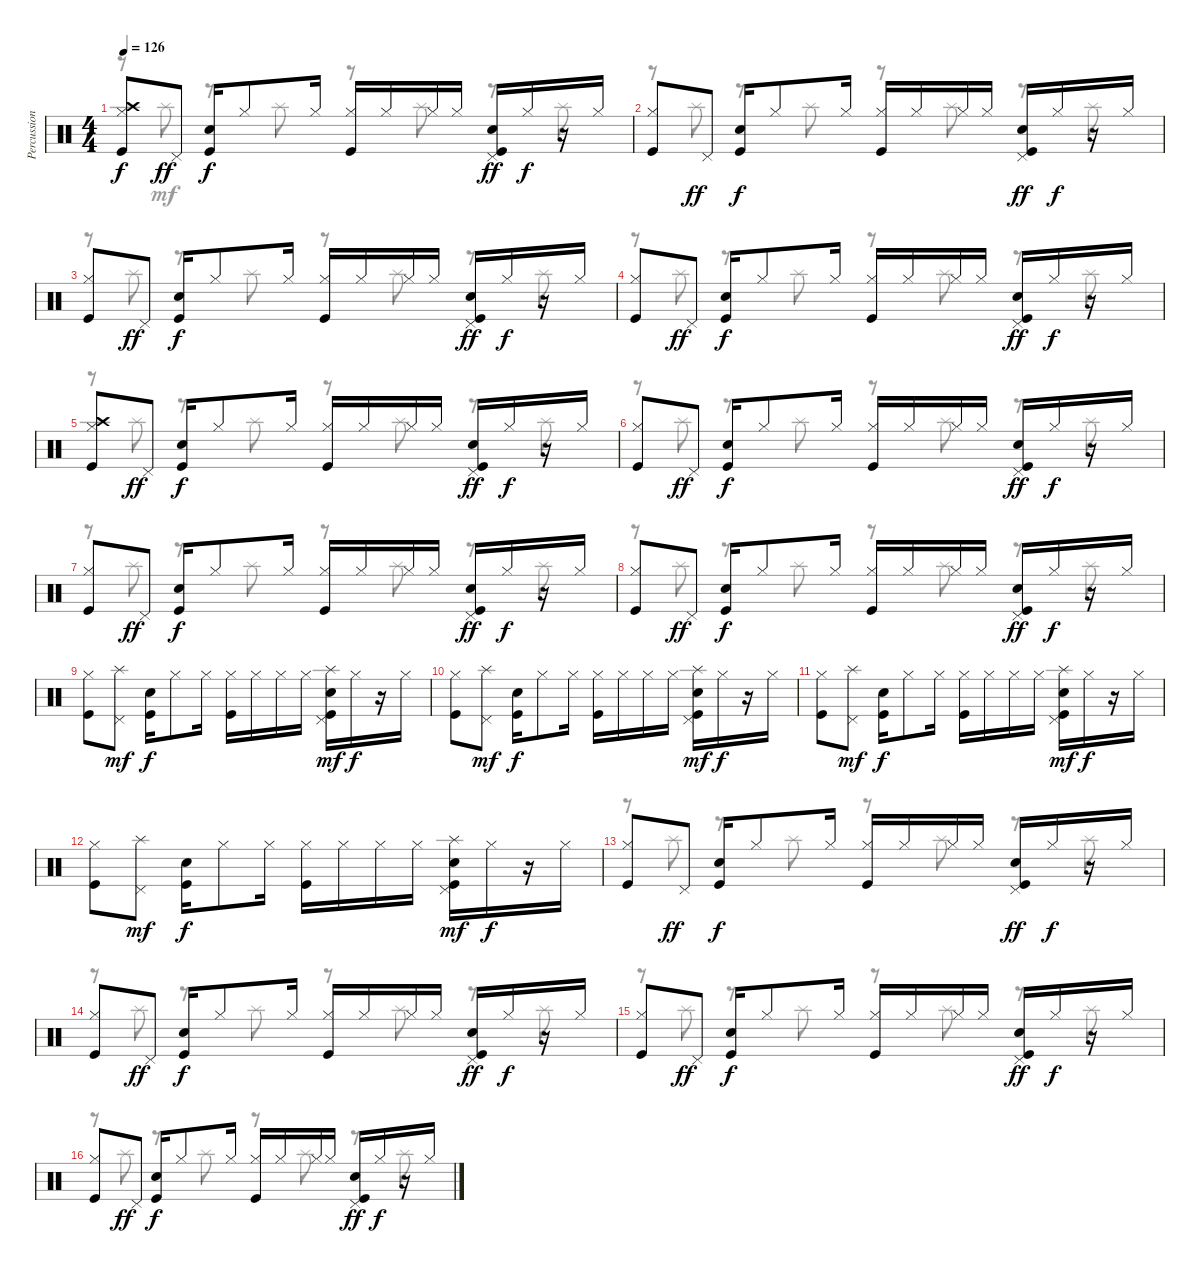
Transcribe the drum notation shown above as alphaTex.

\track ("Percussion" "Percussion") {instrument percussion}
\staff {score}
\articulation defaults
\voice
\ts (4 4)
\tempo 126
\clef neutral
\ks c
("Kick (hit)" "Hi-Hat (closed)" "Crash high (hit)").8{dy f} "Pedal Hi-Hat (hit)".8{dy ff} ("Kick (hit)" "Snare (hit) 2").16{dy f} "Hi-Hat (closed)".8 "Hi-Hat (closed)".16 ("Kick (hit)" "Hi-Hat (closed)").16 "Hi-Hat (closed)".16 "Hi-Hat (closed)".16 "Hi-Hat (closed)".16 ("Kick (hit)" "Snare (hit) 2" "Pedal Hi-Hat (hit)").16{dy ff} "Hi-Hat (closed)".16{dy f} r.16 "Hi-Hat (closed)".16 |
("Kick (hit)" "Hi-Hat (closed)").8 "Pedal Hi-Hat (hit)".8{dy ff} ("Kick (hit)" "Snare (hit) 2").16{dy f} "Hi-Hat (closed)".8 "Hi-Hat (closed)".16 ("Kick (hit)" "Hi-Hat (closed)").16 "Hi-Hat (closed)".16 "Hi-Hat (closed)".16 "Hi-Hat (closed)".16 ("Kick (hit)" "Snare (hit) 2" "Pedal Hi-Hat (hit)").16{dy ff} "Hi-Hat (closed)".16{dy f} r.16 "Hi-Hat (closed)".16 |
("Kick (hit)" "Hi-Hat (closed)").8 "Pedal Hi-Hat (hit)".8{dy ff} ("Kick (hit)" "Snare (hit) 2").16{dy f} "Hi-Hat (closed)".8 "Hi-Hat (closed)".16 ("Kick (hit)" "Hi-Hat (closed)").16 "Hi-Hat (closed)".16 "Hi-Hat (closed)".16 "Hi-Hat (closed)".16 ("Kick (hit)" "Snare (hit) 2" "Pedal Hi-Hat (hit)").16{dy ff} "Hi-Hat (closed)".16{dy f} r.16 "Hi-Hat (closed)".16 |
("Kick (hit)" "Hi-Hat (closed)").8 "Pedal Hi-Hat (hit)".8{dy ff} ("Kick (hit)" "Snare (hit) 2").16{dy f} "Hi-Hat (closed)".8 "Hi-Hat (closed)".16 ("Kick (hit)" "Hi-Hat (closed)").16 "Hi-Hat (closed)".16 "Hi-Hat (closed)".16 "Hi-Hat (closed)".16 ("Kick (hit)" "Snare (hit) 2" "Pedal Hi-Hat (hit)").16{dy ff} "Hi-Hat (closed)".16{dy f} r.16 "Hi-Hat (closed)".16 |
("Kick (hit)" "Hi-Hat (closed)" "Crash high (hit)").8 "Pedal Hi-Hat (hit)".8{dy ff} ("Kick (hit)" "Snare (hit) 2").16{dy f} "Hi-Hat (closed)".8 "Hi-Hat (closed)".16 ("Kick (hit)" "Hi-Hat (closed)").16 "Hi-Hat (closed)".16 "Hi-Hat (closed)".16 "Hi-Hat (closed)".16 ("Kick (hit)" "Snare (hit) 2" "Pedal Hi-Hat (hit)").16{dy ff} "Hi-Hat (closed)".16{dy f} r.16 "Hi-Hat (closed)".16 |
("Kick (hit)" "Hi-Hat (closed)").8 "Pedal Hi-Hat (hit)".8{dy ff} ("Kick (hit)" "Snare (hit) 2").16{dy f} "Hi-Hat (closed)".8 "Hi-Hat (closed)".16 ("Kick (hit)" "Hi-Hat (closed)").16 "Hi-Hat (closed)".16 "Hi-Hat (closed)".16 "Hi-Hat (closed)".16 ("Kick (hit)" "Snare (hit) 2" "Pedal Hi-Hat (hit)").16{dy ff} "Hi-Hat (closed)".16{dy f} r.16 "Hi-Hat (closed)".16 |
("Kick (hit)" "Hi-Hat (closed)").8 "Pedal Hi-Hat (hit)".8{dy ff} ("Kick (hit)" "Snare (hit) 2").16{dy f} "Hi-Hat (closed)".8 "Hi-Hat (closed)".16 ("Kick (hit)" "Hi-Hat (closed)").16 "Hi-Hat (closed)".16 "Hi-Hat (closed)".16 "Hi-Hat (closed)".16 ("Kick (hit)" "Snare (hit) 2" "Pedal Hi-Hat (hit)").16{dy ff} "Hi-Hat (closed)".16{dy f} r.16 "Hi-Hat (closed)".16 |
("Kick (hit)" "Hi-Hat (closed)").8 "Pedal Hi-Hat (hit)".8{dy ff} ("Kick (hit)" "Snare (hit) 2").16{dy f} "Hi-Hat (closed)".8 "Hi-Hat (closed)".16 ("Kick (hit)" "Hi-Hat (closed)").16 "Hi-Hat (closed)".16 "Hi-Hat (closed)".16 "Hi-Hat (closed)".16 ("Kick (hit)" "Snare (hit) 2" "Pedal Hi-Hat (hit)").16{dy ff} "Hi-Hat (closed)".16{dy f} r.16 "Hi-Hat (closed)".16 |
("Kick (hit)" "Hi-Hat (closed)").8 ("Pedal Hi-Hat (hit)" "Splash (hit)").8{dy mf} ("Kick (hit)" "Snare (hit) 2").16{dy f} "Hi-Hat (closed)".8 "Hi-Hat (closed)".16 ("Kick (hit)" "Hi-Hat (closed)").16 "Hi-Hat (closed)".16 "Hi-Hat (closed)".16 "Hi-Hat (closed)".16 ("Kick (hit)" "Snare (hit) 2" "Pedal Hi-Hat (hit)" "Splash (hit)").16{dy mf} "Hi-Hat (closed)".16{dy f} r.16 "Hi-Hat (closed)".16 |
("Kick (hit)" "Hi-Hat (closed)").8 ("Pedal Hi-Hat (hit)" "Splash (hit)").8{dy mf} ("Kick (hit)" "Snare (hit) 2").16{dy f} "Hi-Hat (closed)".8 "Hi-Hat (closed)".16 ("Kick (hit)" "Hi-Hat (closed)").16 "Hi-Hat (closed)".16 "Hi-Hat (closed)".16 "Hi-Hat (closed)".16 ("Kick (hit)" "Snare (hit) 2" "Pedal Hi-Hat (hit)" "Splash (hit)").16{dy mf} "Hi-Hat (closed)".16{dy f} r.16 "Hi-Hat (closed)".16 |
("Kick (hit)" "Hi-Hat (closed)").8 ("Pedal Hi-Hat (hit)" "Splash (hit)").8{dy mf} ("Kick (hit)" "Snare (hit) 2").16{dy f} "Hi-Hat (closed)".8 "Hi-Hat (closed)".16 ("Kick (hit)" "Hi-Hat (closed)").16 "Hi-Hat (closed)".16 "Hi-Hat (closed)".16 "Hi-Hat (closed)".16 ("Kick (hit)" "Snare (hit) 2" "Pedal Hi-Hat (hit)" "Splash (hit)").16{dy mf} "Hi-Hat (closed)".16{dy f} r.16 "Hi-Hat (closed)".16 |
("Kick (hit)" "Hi-Hat (closed)").8 ("Pedal Hi-Hat (hit)" "Splash (hit)").8{dy mf} ("Kick (hit)" "Snare (hit) 2").16{dy f} "Hi-Hat (closed)".8 "Hi-Hat (closed)".16 ("Kick (hit)" "Hi-Hat (closed)").16 "Hi-Hat (closed)".16 "Hi-Hat (closed)".16 "Hi-Hat (closed)".16 ("Kick (hit)" "Snare (hit) 2" "Pedal Hi-Hat (hit)" "Splash (hit)").16{dy mf} "Hi-Hat (closed)".16{dy f} r.16 "Hi-Hat (closed)".16 |
("Kick (hit)" "Hi-Hat (closed)").8 "Pedal Hi-Hat (hit)".8{dy ff} ("Kick (hit)" "Snare (hit) 2").16{dy f} "Hi-Hat (closed)".8 "Hi-Hat (closed)".16 ("Kick (hit)" "Hi-Hat (closed)").16 "Hi-Hat (closed)".16 "Hi-Hat (closed)".16 "Hi-Hat (closed)".16 ("Kick (hit)" "Snare (hit) 2" "Pedal Hi-Hat (hit)").16{dy ff} "Hi-Hat (closed)".16{dy f} r.16 "Hi-Hat (closed)".16 |
("Kick (hit)" "Hi-Hat (closed)").8 "Pedal Hi-Hat (hit)".8{dy ff} ("Kick (hit)" "Snare (hit) 2").16{dy f} "Hi-Hat (closed)".8 "Hi-Hat (closed)".16 ("Kick (hit)" "Hi-Hat (closed)").16 "Hi-Hat (closed)".16 "Hi-Hat (closed)".16 "Hi-Hat (closed)".16 ("Kick (hit)" "Snare (hit) 2" "Pedal Hi-Hat (hit)").16{dy ff} "Hi-Hat (closed)".16{dy f} r.16 "Hi-Hat (closed)".16 |
("Kick (hit)" "Hi-Hat (closed)").8 "Pedal Hi-Hat (hit)".8{dy ff} ("Kick (hit)" "Snare (hit) 2").16{dy f} "Hi-Hat (closed)".8 "Hi-Hat (closed)".16 ("Kick (hit)" "Hi-Hat (closed)").16 "Hi-Hat (closed)".16 "Hi-Hat (closed)".16 "Hi-Hat (closed)".16 ("Kick (hit)" "Snare (hit) 2" "Pedal Hi-Hat (hit)").16{dy ff} "Hi-Hat (closed)".16{dy f} r.16 "Hi-Hat (closed)".16 |
("Kick (hit)" "Hi-Hat (closed)").8 "Pedal Hi-Hat (hit)".8{dy ff} ("Kick (hit)" "Snare (hit) 2").16{dy f} "Hi-Hat (closed)".8 "Hi-Hat (closed)".16 ("Kick (hit)" "Hi-Hat (closed)").16 "Hi-Hat (closed)".16 "Hi-Hat (closed)".16 "Hi-Hat (closed)".16 ("Kick (hit)" "Snare (hit) 2" "Pedal Hi-Hat (hit)").16{dy ff} "Hi-Hat (closed)".16{dy f} r.16 "Hi-Hat (closed)".16
\voice
\clef neutral
\ottava regular
\simile none
\ks c
r.8{dy mf} "Splash (hit)".8 r.8 "Splash (hit)".8 r.8 "Splash (hit)".8 r.8 "Splash (hit)".8 |
r.8 "Splash (hit)".8 r.8 "Splash (hit)".8 r.8 "Splash (hit)".8 r.8 "Splash (hit)".8 |
r.8 "Splash (hit)".8 r.8 "Splash (hit)".8 r.8 "Splash (hit)".8 r.8 "Splash (hit)".8 |
r.8 "Splash (hit)".8 r.8 "Splash (hit)".8 r.8 "Splash (hit)".8 r.8 "Splash (hit)".8 |
r.8 "Splash (hit)".8 r.8 "Splash (hit)".8 r.8 "Splash (hit)".8 r.8 "Splash (hit)".8 |
r.8 "Splash (hit)".8 r.8 "Splash (hit)".8 r.8 "Splash (hit)".8 r.8 "Splash (hit)".8 |
r.8 "Splash (hit)".8 r.8 "Splash (hit)".8 r.8 "Splash (hit)".8 r.8 "Splash (hit)".8 |
r.8 "Splash (hit)".8 r.8 "Splash (hit)".8 r.8 "Splash (hit)".8 r.8 "Splash (hit)".8 |
|
|
|
|
r.8 "Splash (hit)".8 r.8 "Splash (hit)".8 r.8 "Splash (hit)".8 r.8 "Splash (hit)".8 |
r.8 "Splash (hit)".8 r.8 "Splash (hit)".8 r.8 "Splash (hit)".8 r.8 "Splash (hit)".8 |
r.8 "Splash (hit)".8 r.8 "Splash (hit)".8 r.8 "Splash (hit)".8 r.8 "Splash (hit)".8 |
r.8 "Splash (hit)".8 r.8 "Splash (hit)".8 r.8 "Splash (hit)".8 r.8 "Splash (hit)".8
